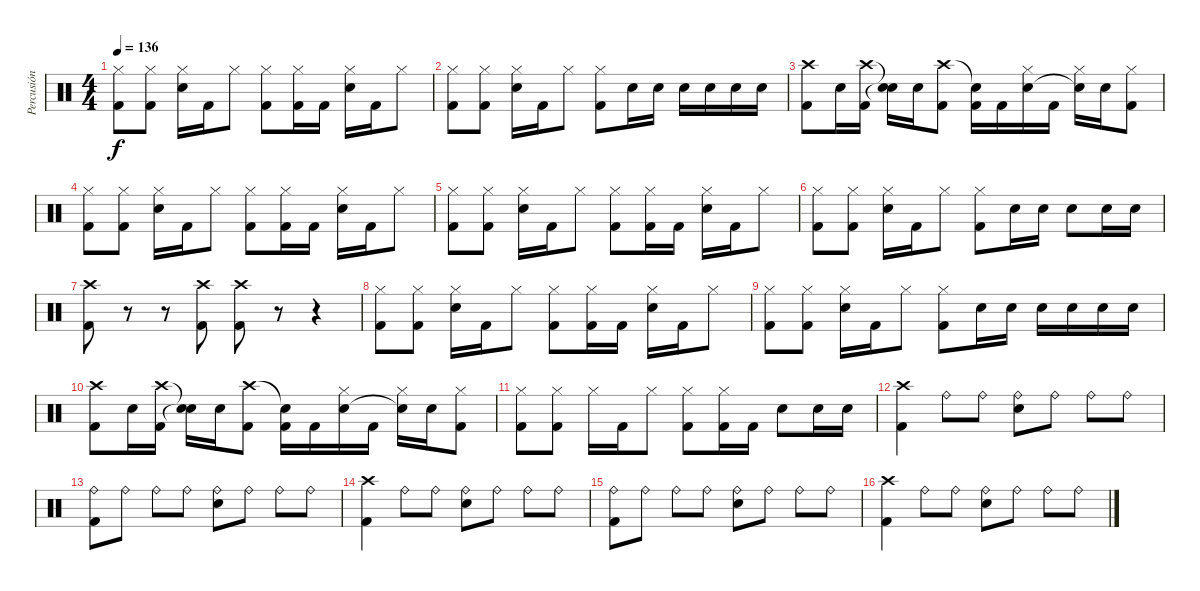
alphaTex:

\track ("Percusión" "Percusión") {instrument percussion}
\staff {score}
\articulation defaults
\ts (4 4)
\tempo 136
\clef neutral
\ks c
("Hi-Hat (closed)" "Kick (hit) 2").8{dy f} ("Hi-Hat (closed)" "Kick (hit) 2").8 ("Hi-Hat (closed)" "Electric Snare (hit)").16 "Kick (hit) 2".16 "Hi-Hat (closed)".8 ("Hi-Hat (closed)" "Kick (hit) 2").8 ("Hi-Hat (closed)" "Kick (hit) 2").16 "Kick (hit) 2".16 ("Hi-Hat (closed)" "Electric Snare (hit)").16 "Kick (hit) 2".16 "Hi-Hat (closed)".8 |
("Hi-Hat (closed)" "Kick (hit) 2").8 ("Hi-Hat (closed)" "Kick (hit) 2").8 ("Hi-Hat (closed)" "Electric Snare (hit)").16 "Kick (hit) 2".16 "Hi-Hat (closed)".8 ("Hi-Hat (closed)" "Kick (hit) 2").8 "Electric Snare (hit)".16 "Electric Snare (hit)".16 "Electric Snare (hit)".16 "Electric Snare (hit)".16 "Electric Snare (hit)".16 "Electric Snare (hit)".16 |
("Crash high (hit)" "Kick (hit) 2").8 "Electric Snare (hit)".16 ("Crash high (hit)" "Kick (hit) 2").16 ("Snare (hit)"{t} "Snare (hit)"{t}).16 "Electric Snare (hit)".16 ("Crash high (hit)" "Kick (hit) 2").8 ("Snare (hit)"{t} "Kick (hit) 2").16 "Kick (hit) 2".16 ("Hi-Hat (closed)" "Electric Snare (hit)").16 "Kick (hit) 2".16 ("Hi-Hat (closed)" "Snare (hit)"{t}).16 "Electric Snare (hit)".16 ("Hi-Hat (closed)" "Kick (hit) 2").8 |
("Hi-Hat (closed)" "Kick (hit) 2").8 ("Hi-Hat (closed)" "Kick (hit) 2").8 ("Hi-Hat (closed)" "Electric Snare (hit)").16 "Kick (hit) 2".16 "Hi-Hat (closed)".8 ("Hi-Hat (closed)" "Kick (hit) 2").8 ("Hi-Hat (closed)" "Kick (hit) 2").16 "Kick (hit) 2".16 ("Hi-Hat (closed)" "Electric Snare (hit)").16 "Kick (hit) 2".16 "Hi-Hat (closed)".8 |
("Hi-Hat (closed)" "Kick (hit) 2").8 ("Hi-Hat (closed)" "Kick (hit) 2").8 ("Hi-Hat (closed)" "Electric Snare (hit)").16 "Kick (hit) 2".16 "Hi-Hat (closed)".8 ("Hi-Hat (closed)" "Kick (hit) 2").8 ("Hi-Hat (closed)" "Kick (hit) 2").16 "Kick (hit) 2".16 ("Hi-Hat (closed)" "Electric Snare (hit)").16 "Kick (hit) 2".16 "Hi-Hat (closed)".8 |
("Hi-Hat (closed)" "Kick (hit) 2").8 ("Hi-Hat (closed)" "Kick (hit) 2").8 ("Hi-Hat (closed)" "Electric Snare (hit)").16 "Kick (hit) 2".16 "Hi-Hat (closed)".8 ("Hi-Hat (closed)" "Kick (hit) 2").8 "Electric Snare (hit)".16 "Electric Snare (hit)".16 "Electric Snare (hit)".8 "Electric Snare (hit)".16 "Electric Snare (hit)".16 |
("Crash high (hit)" "Kick (hit) 2").8 r.8 r.8 ("Crash high (hit)" "Kick (hit) 2").8 ("Crash high (hit)" "Kick (hit) 2").8 r.8 r.4 |
("Hi-Hat (closed)" "Kick (hit) 2").8 ("Hi-Hat (closed)" "Kick (hit) 2").8 ("Hi-Hat (closed)" "Electric Snare (hit)").16 "Kick (hit) 2".16 "Hi-Hat (closed)".8 ("Hi-Hat (closed)" "Kick (hit) 2").8 ("Hi-Hat (closed)" "Kick (hit) 2").16 "Kick (hit) 2".16 ("Hi-Hat (closed)" "Electric Snare (hit)").16 "Kick (hit) 2".16 "Hi-Hat (closed)".8 |
("Hi-Hat (closed)" "Kick (hit) 2").8 ("Hi-Hat (closed)" "Kick (hit) 2").8 ("Hi-Hat (closed)" "Electric Snare (hit)").16 "Kick (hit) 2".16 "Hi-Hat (closed)".8 ("Hi-Hat (closed)" "Kick (hit) 2").8 "Electric Snare (hit)".16 "Electric Snare (hit)".16 "Electric Snare (hit)".16 "Electric Snare (hit)".16 "Electric Snare (hit)".16 "Electric Snare (hit)".16 |
("Crash high (hit)" "Kick (hit) 2").8 "Electric Snare (hit)".16 ("Crash high (hit)" "Kick (hit) 2").16 ("Snare (hit)"{t} "Snare (hit)"{t}).16 "Electric Snare (hit)".16 ("Crash high (hit)" "Kick (hit) 2").8 ("Snare (hit)"{t} "Kick (hit) 2").16 "Kick (hit) 2".16 ("Hi-Hat (closed)" "Electric Snare (hit)").16 "Kick (hit) 2".16 ("Hi-Hat (closed)" "Snare (hit)"{t}).16 "Electric Snare (hit)".16 ("Hi-Hat (closed)" "Kick (hit) 2").8 |
("Hi-Hat (closed)" "Kick (hit) 2").8 ("Hi-Hat (closed)" "Kick (hit) 2").8 "Hi-Hat (closed)".16 "Kick (hit) 2".16 "Hi-Hat (closed)".8 ("Hi-Hat (closed)" "Kick (hit) 2").8 ("Hi-Hat (closed)" "Kick (hit) 2").16 "Kick (hit) 2".16 "Electric Snare (hit)".8 "Electric Snare (hit)".16 "Electric Snare (hit)".16 |
("Crash high (hit)" "Kick (hit) 2").4 "Ride (bell)".8 "Ride (bell)".8 ("Ride (bell)" "Electric Snare (hit)").8 "Ride (bell)".8 "Ride (bell)".8 "Ride (bell)".8 |
("Ride (bell)" "Kick (hit) 2").8 "Ride (bell)".8 "Ride (bell)".8 "Ride (bell)".8 ("Ride (bell)" "Electric Snare (hit)").8 "Ride (bell)".8 "Ride (bell)".8 "Ride (bell)".8 |
("Crash high (hit)" "Kick (hit) 2").4 "Ride (bell)".8 "Ride (bell)".8 ("Ride (bell)" "Electric Snare (hit)").8 "Ride (bell)".8 "Ride (bell)".8 "Ride (bell)".8 |
("Ride (bell)" "Kick (hit) 2").8 "Ride (bell)".8 "Ride (bell)".8 "Ride (bell)".8 ("Ride (bell)" "Electric Snare (hit)").8 "Ride (bell)".8 "Ride (bell)".8 "Ride (bell)".8 |
("Crash high (hit)" "Kick (hit) 2").4 "Ride (bell)".8 "Ride (bell)".8 ("Ride (bell)" "Electric Snare (hit)").8 "Ride (bell)".8 "Ride (bell)".8 "Ride (bell)".8
